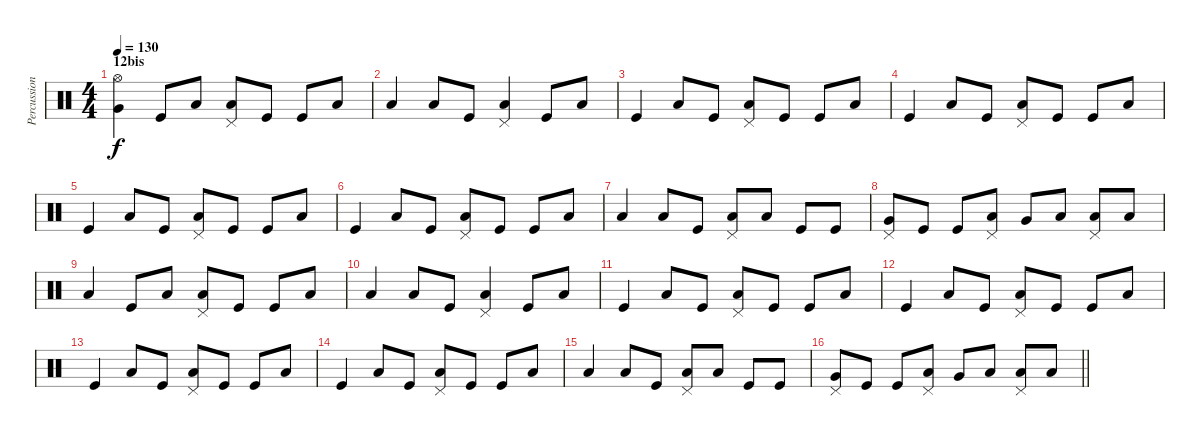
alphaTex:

\track ("Percussioni" "Percussion") {instrument percussion}
\staff {score}
\articulation defaults
\ts (4 4)
\section ("" "12bis")
\tempo 130
\clef neutral
\ks c
("Hi-Hat (open)" "Very Low Tom (hit)").4{dy f} "Kick (hit)".8 "Low Floor Tom (hit)".8 ("Low Floor Tom (hit)" "Pedal Hi-Hat (hit)").8 "Kick (hit)".8 "Kick (hit)".8 "Low Floor Tom (hit)".8 |
"Low Floor Tom (hit)".4 "Low Floor Tom (hit)".8 "Kick (hit)".8 ("Low Floor Tom (hit)" "Pedal Hi-Hat (hit)").4 "Kick (hit)".8 "Low Floor Tom (hit)".8 |
"Kick (hit)".4 "Low Floor Tom (hit)".8 "Kick (hit)".8 ("Low Floor Tom (hit)" "Pedal Hi-Hat (hit)").8 "Kick (hit)".8 "Kick (hit)".8 "Low Floor Tom (hit)".8 |
"Kick (hit)".4 "Low Floor Tom (hit)".8 "Kick (hit)".8 ("Low Floor Tom (hit)" "Pedal Hi-Hat (hit)").8 "Kick (hit)".8 "Kick (hit)".8 "Low Floor Tom (hit)".8 |
"Kick (hit)".4 "Low Floor Tom (hit)".8 "Kick (hit)".8 ("Low Floor Tom (hit)" "Pedal Hi-Hat (hit)").8 "Kick (hit)".8 "Kick (hit)".8 "Low Floor Tom (hit)".8 |
"Kick (hit)".4 "Low Floor Tom (hit)".8 "Kick (hit)".8 ("Low Floor Tom (hit)" "Pedal Hi-Hat (hit)").8 "Kick (hit)".8 "Kick (hit)".8 "Low Floor Tom (hit)".8 |
"Low Floor Tom (hit)".4 "Low Floor Tom (hit)".8 "Kick (hit)".8 ("Low Floor Tom (hit)" "Pedal Hi-Hat (hit)").8 "Low Floor Tom (hit)".8 "Kick (hit)".8 "Kick (hit)".8 |
("Very Low Tom (hit)" "Pedal Hi-Hat (hit)").8 "Kick (hit)".8 "Kick (hit)".8 ("Low Floor Tom (hit)" "Pedal Hi-Hat (hit)").8 "Very Low Tom (hit)".8 "Low Floor Tom (hit)".8 ("Low Floor Tom (hit)" "Pedal Hi-Hat (hit)").8 "Low Floor Tom (hit)".8 |
"Low Floor Tom (hit)".4 "Kick (hit)".8 "Low Floor Tom (hit)".8 ("Low Floor Tom (hit)" "Pedal Hi-Hat (hit)").8 "Kick (hit)".8 "Kick (hit)".8 "Low Floor Tom (hit)".8 |
"Low Floor Tom (hit)".4 "Low Floor Tom (hit)".8 "Kick (hit)".8 ("Low Floor Tom (hit)" "Pedal Hi-Hat (hit)").4 "Kick (hit)".8 "Low Floor Tom (hit)".8 |
"Kick (hit)".4 "Low Floor Tom (hit)".8 "Kick (hit)".8 ("Low Floor Tom (hit)" "Pedal Hi-Hat (hit)").8 "Kick (hit)".8 "Kick (hit)".8 "Low Floor Tom (hit)".8 |
"Kick (hit)".4 "Low Floor Tom (hit)".8 "Kick (hit)".8 ("Low Floor Tom (hit)" "Pedal Hi-Hat (hit)").8 "Kick (hit)".8 "Kick (hit)".8 "Low Floor Tom (hit)".8 |
"Kick (hit)".4 "Low Floor Tom (hit)".8 "Kick (hit)".8 ("Low Floor Tom (hit)" "Pedal Hi-Hat (hit)").8 "Kick (hit)".8 "Kick (hit)".8 "Low Floor Tom (hit)".8 |
"Kick (hit)".4 "Low Floor Tom (hit)".8 "Kick (hit)".8 ("Low Floor Tom (hit)" "Pedal Hi-Hat (hit)").8 "Kick (hit)".8 "Kick (hit)".8 "Low Floor Tom (hit)".8 |
"Low Floor Tom (hit)".4 "Low Floor Tom (hit)".8 "Kick (hit)".8 ("Low Floor Tom (hit)" "Pedal Hi-Hat (hit)").8 "Low Floor Tom (hit)".8 "Kick (hit)".8 "Kick (hit)".8 |
\barLineRight lightlight
("Very Low Tom (hit)" "Pedal Hi-Hat (hit)").8 "Kick (hit)".8 "Kick (hit)".8 ("Low Floor Tom (hit)" "Pedal Hi-Hat (hit)").8 "Very Low Tom (hit)".8 "Low Floor Tom (hit)".8 ("Low Floor Tom (hit)" "Pedal Hi-Hat (hit)").8 "Low Floor Tom (hit)".8
